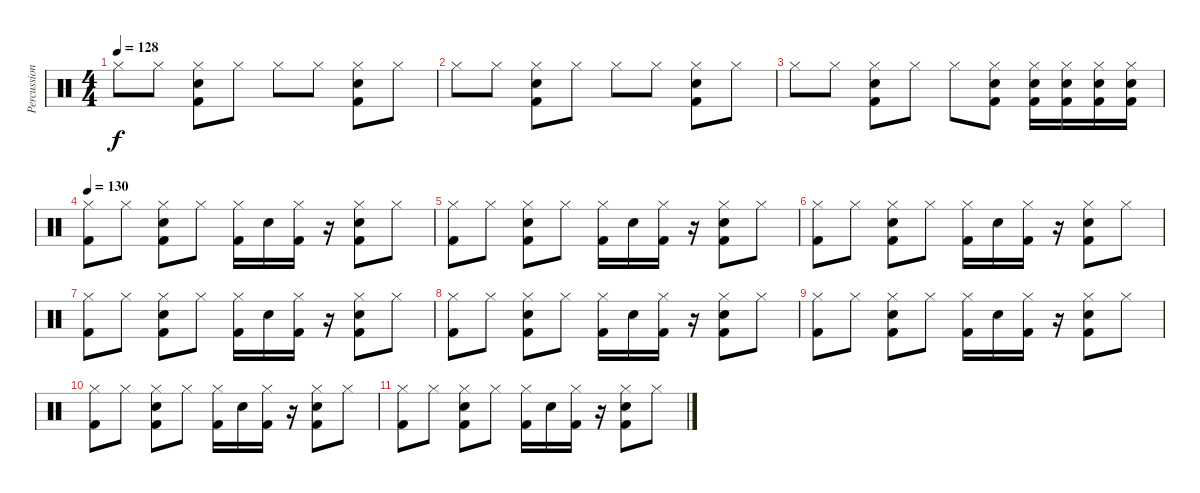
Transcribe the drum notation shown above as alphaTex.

\track ("Percussion" "Percussion") {instrument percussion}
\staff {score}
\articulation defaults
\ts (4 4)
\tempo 128
\clef neutral
\ks c "Hi-Hat (closed)".8{dy f} "Hi-Hat (closed)".8
("Hi-Hat (closed)" "Electric Snare (hit)" "Kick (hit) 2").8 "Hi-Hat (closed)".8 "Hi-Hat (closed)".8 "Hi-Hat (closed)".8 ("Hi-Hat (closed)" "Electric Snare (hit)" "Kick (hit) 2").8 "Hi-Hat (closed)".8 |
"Hi-Hat (closed)".8 "Hi-Hat (closed)".8 ("Hi-Hat (closed)" "Electric Snare (hit)" "Kick (hit) 2").8 "Hi-Hat (closed)".8 "Hi-Hat (closed)".8 "Hi-Hat (closed)".8 ("Hi-Hat (closed)" "Electric Snare (hit)" "Kick (hit) 2").8 "Hi-Hat (closed)".8 |
"Hi-Hat (closed)".8 "Hi-Hat (closed)".8 ("Hi-Hat (closed)" "Electric Snare (hit)" "Kick (hit) 2").8 "Hi-Hat (closed)".8 "Hi-Hat (closed)".8 ("Hi-Hat (closed)" "Electric Snare (hit)" "Kick (hit) 2").8 ("Hi-Hat (closed)" "Electric Snare (hit)" "Kick (hit) 2").16 ("Hi-Hat (closed)" "Electric Snare (hit)" "Kick (hit) 2").16 ("Hi-Hat (closed)" "Electric Snare (hit)" "Kick (hit) 2").16 ("Hi-Hat (closed)" "Electric Snare (hit)" "Kick (hit) 2").16 |
\tempo 130
("Hi-Hat (closed)" "Kick (hit) 2").8 "Hi-Hat (closed)".8 ("Hi-Hat (closed)" "Electric Snare (hit)" "Kick (hit) 2").8 "Hi-Hat (closed)".8 ("Hi-Hat (closed)" "Kick (hit) 2").16 "Electric Snare (hit)".16 ("Hi-Hat (closed)" "Kick (hit) 2").16 r.16 ("Hi-Hat (closed)" "Electric Snare (hit)" "Kick (hit) 2").8 "Hi-Hat (closed)".8 |
("Hi-Hat (closed)" "Kick (hit) 2").8 "Hi-Hat (closed)".8 ("Hi-Hat (closed)" "Electric Snare (hit)" "Kick (hit) 2").8 "Hi-Hat (closed)".8 ("Hi-Hat (closed)" "Kick (hit) 2").16 "Electric Snare (hit)".16 ("Hi-Hat (closed)" "Kick (hit) 2").16 r.16 ("Hi-Hat (closed)" "Electric Snare (hit)" "Kick (hit) 2").8 "Hi-Hat (closed)".8 |
("Hi-Hat (closed)" "Kick (hit) 2").8 "Hi-Hat (closed)".8 ("Hi-Hat (closed)" "Electric Snare (hit)" "Kick (hit) 2").8 "Hi-Hat (closed)".8 ("Hi-Hat (closed)" "Kick (hit) 2").16 "Electric Snare (hit)".16 ("Hi-Hat (closed)" "Kick (hit) 2").16 r.16 ("Hi-Hat (closed)" "Electric Snare (hit)" "Kick (hit) 2").8 "Hi-Hat (closed)".8 |
("Hi-Hat (closed)" "Kick (hit) 2").8 "Hi-Hat (closed)".8 ("Hi-Hat (closed)" "Electric Snare (hit)" "Kick (hit) 2").8 "Hi-Hat (closed)".8 ("Hi-Hat (closed)" "Kick (hit) 2").16 "Electric Snare (hit)".16 ("Hi-Hat (closed)" "Kick (hit) 2").16 r.16 ("Hi-Hat (closed)" "Electric Snare (hit)" "Kick (hit) 2").8 "Hi-Hat (closed)".8 |
("Hi-Hat (closed)" "Kick (hit) 2").8 "Hi-Hat (closed)".8 ("Hi-Hat (closed)" "Electric Snare (hit)" "Kick (hit) 2").8 "Hi-Hat (closed)".8 ("Hi-Hat (closed)" "Kick (hit) 2").16 "Electric Snare (hit)".16 ("Hi-Hat (closed)" "Kick (hit) 2").16 r.16 ("Hi-Hat (closed)" "Electric Snare (hit)" "Kick (hit) 2").8 "Hi-Hat (closed)".8 |
("Hi-Hat (closed)" "Kick (hit) 2").8 "Hi-Hat (closed)".8 ("Hi-Hat (closed)" "Electric Snare (hit)" "Kick (hit) 2").8 "Hi-Hat (closed)".8 ("Hi-Hat (closed)" "Kick (hit) 2").16 "Electric Snare (hit)".16 ("Hi-Hat (closed)" "Kick (hit) 2").16 r.16 ("Hi-Hat (closed)" "Electric Snare (hit)" "Kick (hit) 2").8 "Hi-Hat (closed)".8 |
("Hi-Hat (closed)" "Kick (hit) 2").8 "Hi-Hat (closed)".8 ("Hi-Hat (closed)" "Electric Snare (hit)" "Kick (hit) 2").8 "Hi-Hat (closed)".8 ("Hi-Hat (closed)" "Kick (hit) 2").16 "Electric Snare (hit)".16 ("Hi-Hat (closed)" "Kick (hit) 2").16 r.16 ("Hi-Hat (closed)" "Electric Snare (hit)" "Kick (hit) 2").8 "Hi-Hat (closed)".8 |
("Hi-Hat (closed)" "Kick (hit) 2").8 "Hi-Hat (closed)".8 ("Hi-Hat (closed)" "Electric Snare (hit)" "Kick (hit) 2").8 "Hi-Hat (closed)".8 ("Hi-Hat (closed)" "Kick (hit) 2").16 "Electric Snare (hit)".16 ("Hi-Hat (closed)" "Kick (hit) 2").16 r.16 ("Hi-Hat (closed)" "Electric Snare (hit)" "Kick (hit) 2").8 "Hi-Hat (closed)".8
